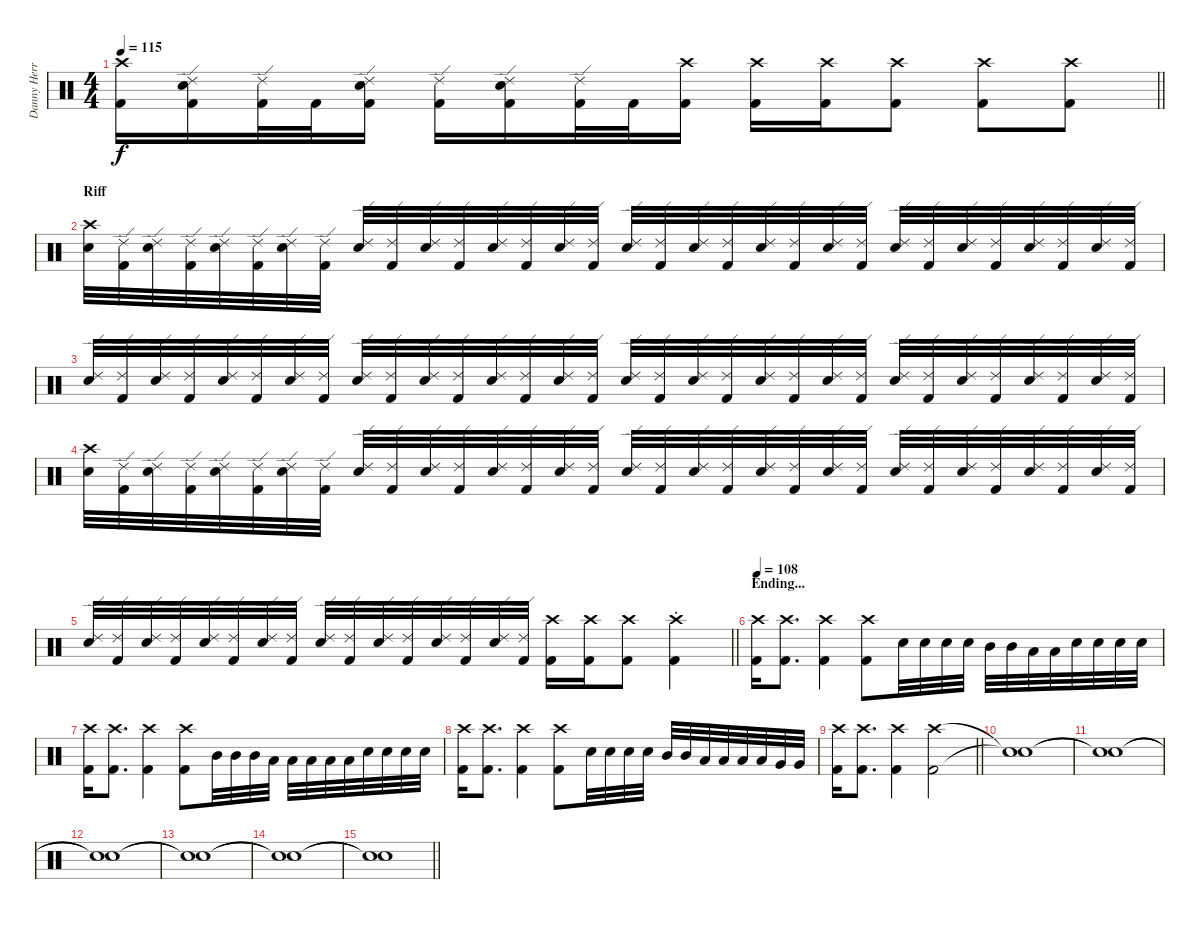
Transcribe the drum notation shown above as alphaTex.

\track ("Danny Herrera " "Danny Herr") {instrument percussion}
\staff {score}
\articulation defaults
\ts (4 4)
\tempo 115
\clef neutral
\barLineRight lightlight
\ks c
("Kick (hit) 2" "Crash high (hit)").16{dy f} ("Kick (hit) 2" "Snare (hit) 2" "Ride (edge) 2").16 ("Kick (hit) 2" "Ride (edge) 2").32 "Kick (hit) 2".32 ("Kick (hit) 2" "Snare (hit) 2" "Ride (edge) 2").16 ("Kick (hit) 2" "Ride (edge) 2").16 ("Kick (hit) 2" "Snare (hit) 2" "Ride (edge) 2").16 ("Kick (hit) 2" "Ride (edge) 2").32 "Kick (hit) 2".32 ("Kick (hit) 2" "Crash high (hit)").16 ("Kick (hit) 2" "Crash high (hit)").16 ("Kick (hit) 2" "Crash high (hit)").16 ("Kick (hit) 2" "Crash high (hit)").8 ("Kick (hit) 2" "Crash high (hit)").8 ("Kick (hit) 2" "Crash high (hit)").8 |
\section ("" "Riff")
("Snare (hit) 2" "Crash high (hit)").32 ("Kick (hit) 2" "Ride (edge) 2").32 ("Snare (hit) 2" "Ride (edge) 2").32 ("Kick (hit) 2" "Ride (edge) 2").32 ("Snare (hit) 2" "Ride (edge) 2").32 ("Kick (hit) 2" "Ride (edge) 2").32 ("Snare (hit) 2" "Ride (edge) 2").32 ("Kick (hit) 2" "Ride (edge) 2").32 ("Snare (hit) 2" "Ride (edge) 2").32 ("Kick (hit) 2" "Ride (edge) 2").32 ("Snare (hit) 2" "Ride (edge) 2").32 ("Kick (hit) 2" "Ride (edge) 2").32 ("Snare (hit) 2" "Ride (edge) 2").32 ("Kick (hit) 2" "Ride (edge) 2").32 ("Snare (hit) 2" "Ride (edge) 2").32 ("Kick (hit) 2" "Ride (edge) 2").32 ("Snare (hit) 2" "Ride (edge) 2").32 ("Kick (hit) 2" "Ride (edge) 2").32 ("Snare (hit) 2" "Ride (edge) 2").32 ("Kick (hit) 2" "Ride (edge) 2").32 ("Snare (hit) 2" "Ride (edge) 2").32 ("Kick (hit) 2" "Ride (edge) 2").32 ("Snare (hit) 2" "Ride (edge) 2").32 ("Kick (hit) 2" "Ride (edge) 2").32 ("Snare (hit) 2" "Ride (edge) 2").32 ("Kick (hit) 2" "Ride (edge) 2").32 ("Snare (hit) 2" "Ride (edge) 2").32 ("Kick (hit) 2" "Ride (edge) 2").32 ("Snare (hit) 2" "Ride (edge) 2").32 ("Kick (hit) 2" "Ride (edge) 2").32 ("Snare (hit) 2" "Ride (edge) 2").32 ("Kick (hit) 2" "Ride (edge) 2").32 |
("Snare (hit) 2" "Ride (edge) 2").32 ("Kick (hit) 2" "Ride (edge) 2").32 ("Snare (hit) 2" "Ride (edge) 2").32 ("Kick (hit) 2" "Ride (edge) 2").32 ("Snare (hit) 2" "Ride (edge) 2").32 ("Kick (hit) 2" "Ride (edge) 2").32 ("Snare (hit) 2" "Ride (edge) 2").32 ("Kick (hit) 2" "Ride (edge) 2").32 ("Snare (hit) 2" "Ride (edge) 2").32 ("Kick (hit) 2" "Ride (edge) 2").32 ("Snare (hit) 2" "Ride (edge) 2").32 ("Kick (hit) 2" "Ride (edge) 2").32 ("Snare (hit) 2" "Ride (edge) 2").32 ("Kick (hit) 2" "Ride (edge) 2").32 ("Snare (hit) 2" "Ride (edge) 2").32 ("Kick (hit) 2" "Ride (edge) 2").32 ("Snare (hit) 2" "Ride (edge) 2").32 ("Kick (hit) 2" "Ride (edge) 2").32 ("Snare (hit) 2" "Ride (edge) 2").32 ("Kick (hit) 2" "Ride (edge) 2").32 ("Snare (hit) 2" "Ride (edge) 2").32 ("Kick (hit) 2" "Ride (edge) 2").32 ("Snare (hit) 2" "Ride (edge) 2").32 ("Kick (hit) 2" "Ride (edge) 2").32 ("Snare (hit) 2" "Ride (edge) 2").32 ("Kick (hit) 2" "Ride (edge) 2").32 ("Snare (hit) 2" "Ride (edge) 2").32 ("Kick (hit) 2" "Ride (edge) 2").32 ("Snare (hit) 2" "Ride (edge) 2").32 ("Kick (hit) 2" "Ride (edge) 2").32 ("Snare (hit) 2" "Ride (edge) 2").32 ("Kick (hit) 2" "Ride (edge) 2").32 |
("Snare (hit) 2" "Crash high (hit)").32 ("Kick (hit) 2" "Ride (edge) 2").32 ("Snare (hit) 2" "Ride (edge) 2").32 ("Kick (hit) 2" "Ride (edge) 2").32 ("Snare (hit) 2" "Ride (edge) 2").32 ("Kick (hit) 2" "Ride (edge) 2").32 ("Snare (hit) 2" "Ride (edge) 2").32 ("Kick (hit) 2" "Ride (edge) 2").32 ("Snare (hit) 2" "Ride (edge) 2").32 ("Kick (hit) 2" "Ride (edge) 2").32 ("Snare (hit) 2" "Ride (edge) 2").32 ("Kick (hit) 2" "Ride (edge) 2").32 ("Snare (hit) 2" "Ride (edge) 2").32 ("Kick (hit) 2" "Ride (edge) 2").32 ("Snare (hit) 2" "Ride (edge) 2").32 ("Kick (hit) 2" "Ride (edge) 2").32 ("Snare (hit) 2" "Ride (edge) 2").32 ("Kick (hit) 2" "Ride (edge) 2").32 ("Snare (hit) 2" "Ride (edge) 2").32 ("Kick (hit) 2" "Ride (edge) 2").32 ("Snare (hit) 2" "Ride (edge) 2").32 ("Kick (hit) 2" "Ride (edge) 2").32 ("Snare (hit) 2" "Ride (edge) 2").32 ("Kick (hit) 2" "Ride (edge) 2").32 ("Snare (hit) 2" "Ride (edge) 2").32 ("Kick (hit) 2" "Ride (edge) 2").32 ("Snare (hit) 2" "Ride (edge) 2").32 ("Kick (hit) 2" "Ride (edge) 2").32 ("Snare (hit) 2" "Ride (edge) 2").32 ("Kick (hit) 2" "Ride (edge) 2").32 ("Snare (hit) 2" "Ride (edge) 2").32 ("Kick (hit) 2" "Ride (edge) 2").32 |
\barLineRight lightlight
("Snare (hit) 2" "Ride (edge) 2").32 ("Kick (hit) 2" "Ride (edge) 2").32 ("Snare (hit) 2" "Ride (edge) 2").32 ("Kick (hit) 2" "Ride (edge) 2").32 ("Snare (hit) 2" "Ride (edge) 2").32 ("Kick (hit) 2" "Ride (edge) 2").32 ("Snare (hit) 2" "Ride (edge) 2").32 ("Kick (hit) 2" "Ride (edge) 2").32 ("Snare (hit) 2" "Ride (edge) 2").32 ("Kick (hit) 2" "Ride (edge) 2").32 ("Snare (hit) 2" "Ride (edge) 2").32 ("Kick (hit) 2" "Ride (edge) 2").32 ("Snare (hit) 2" "Ride (edge) 2").32 ("Kick (hit) 2" "Ride (edge) 2").32 ("Snare (hit) 2" "Ride (edge) 2").32 ("Kick (hit) 2" "Ride (edge) 2").32 ("Kick (hit) 2" "Crash high (hit)").16 ("Kick (hit) 2" "Crash high (hit)").16 ("Kick (hit) 2" "Crash high (hit)").8 ("Kick (hit) 2"{st} "Crash high (hit)"{st}).4 |
\section ("" "Ending...")
\tempo 108
("Kick (hit) 2" "Crash high (hit)").16 ("Kick (hit) 2" "Crash high (hit)").8{d} ("Kick (hit) 2" "Crash high (hit)").4 ("Kick (hit) 2" "Crash high (hit)").8 "Snare (hit) 2".32 "Snare (hit) 2".32 "Snare (hit) 2".32 "Snare (hit) 2".32 "Mid Tom (hit)".32 "Mid Tom (hit)".32 "Low Tom (hit)".32 "Low Tom (hit)".32 "Snare (hit) 2".32 "Snare (hit) 2".32 "Snare (hit) 2".32 "Snare (hit) 2".32 |
("Kick (hit) 2" "Crash high (hit)").16 ("Kick (hit) 2" "Crash high (hit)").8{d} ("Kick (hit) 2" "Crash high (hit)").4 ("Kick (hit) 2" "Crash high (hit)").8 "Mid Tom (hit)".32 "Mid Tom (hit)".32 "Mid Tom (hit)".32 "Low Tom (hit)".32 "Low Tom (hit)".32 "Low Tom (hit)".32 "Low Tom (hit)".32 "Low Tom (hit)".32 "Snare (hit) 2".32 "Snare (hit) 2".32 "Snare (hit) 2".32 "Snare (hit) 2".32 |
("Kick (hit) 2" "Crash high (hit)").16 ("Kick (hit) 2" "Crash high (hit)").8{d} ("Kick (hit) 2" "Crash high (hit)").4 ("Kick (hit) 2" "Crash high (hit)").8 "Snare (hit) 2".32 "Snare (hit) 2".32 "Snare (hit) 2".32 "Snare (hit) 2".32 "Mid Tom (hit)".32 "Mid Tom (hit)".32 "Low Tom (hit)".32 "Low Tom (hit)".32 "Low Tom (hit)".32 "Low Tom (hit)".32 "Very Low Tom (hit)".32 "Very Low Tom (hit)".32 |
\barLineRight lightlight
("Kick (hit) 2" "Crash high (hit)").16 ("Kick (hit) 2" "Crash high (hit)").8{d} ("Kick (hit) 2" "Crash high (hit)").4 ("Kick (hit) 2" "Crash high (hit)").2 |
("Snare (hit)"{t} "Snare (hit)"{t}).1 |
("Snare (hit)"{t} "Snare (hit)"{t}).1 |
("Snare (hit)"{t} "Snare (hit)"{t}).1 |
("Snare (hit)"{t} "Snare (hit)"{t}).1 |
("Snare (hit)"{t} "Snare (hit)"{t}).1 |
\barLineRight lightlight
("Snare (hit)"{t} "Snare (hit)"{t}).1
